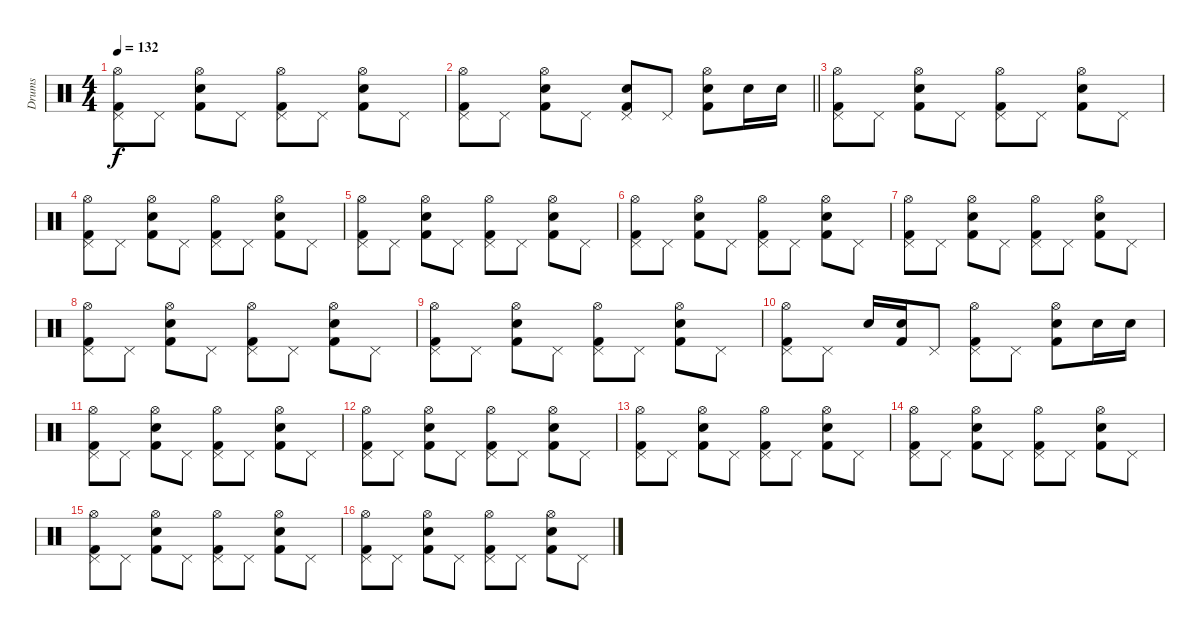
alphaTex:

\track ("Drums" "Drums") {instrument percussion}
\staff {score}
\articulation defaults
\ts (4 4)
\tempo 132
\clef neutral
\ks c
("Hi-Hat (open)" "Pedal Hi-Hat (hit)" "Kick (hit) 2").8{dy f} "Pedal Hi-Hat (hit)".8 ("Electric Snare (hit)" "Hi-Hat (open)" "Kick (hit) 2").8 "Pedal Hi-Hat (hit)".8 ("Hi-Hat (open)" "Pedal Hi-Hat (hit)" "Kick (hit) 2").8 "Pedal Hi-Hat (hit)".8 ("Electric Snare (hit)" "Hi-Hat (open)" "Kick (hit) 2").8 "Pedal Hi-Hat (hit)".8 |
\barLineRight lightlight
("Hi-Hat (open)" "Pedal Hi-Hat (hit)" "Kick (hit) 2").8 "Pedal Hi-Hat (hit)".8 ("Electric Snare (hit)" "Hi-Hat (open)" "Kick (hit) 2").8 "Pedal Hi-Hat (hit)".8 ("Electric Snare (hit)" "Pedal Hi-Hat (hit)" "Kick (hit) 2").8 "Pedal Hi-Hat (hit)".8 ("Electric Snare (hit)" "Hi-Hat (open)" "Kick (hit) 2").8 "Electric Snare (hit)".16 "Electric Snare (hit)".16 |
\section ("" "")
("Hi-Hat (open)" "Pedal Hi-Hat (hit)" "Kick (hit) 2").8 "Pedal Hi-Hat (hit)".8 ("Electric Snare (hit)" "Hi-Hat (open)" "Kick (hit) 2").8 "Pedal Hi-Hat (hit)".8 ("Hi-Hat (open)" "Pedal Hi-Hat (hit)" "Kick (hit) 2").8 "Pedal Hi-Hat (hit)".8 ("Electric Snare (hit)" "Hi-Hat (open)" "Kick (hit) 2").8 "Pedal Hi-Hat (hit)".8 |
("Hi-Hat (open)" "Pedal Hi-Hat (hit)" "Kick (hit) 2").8 "Pedal Hi-Hat (hit)".8 ("Electric Snare (hit)" "Hi-Hat (open)" "Kick (hit) 2").8 "Pedal Hi-Hat (hit)".8 ("Hi-Hat (open)" "Pedal Hi-Hat (hit)" "Kick (hit) 2").8 "Pedal Hi-Hat (hit)".8 ("Electric Snare (hit)" "Hi-Hat (open)" "Kick (hit) 2").8 "Pedal Hi-Hat (hit)".8 |
("Hi-Hat (open)" "Pedal Hi-Hat (hit)" "Kick (hit) 2").8 "Pedal Hi-Hat (hit)".8 ("Electric Snare (hit)" "Hi-Hat (open)" "Kick (hit) 2").8 "Pedal Hi-Hat (hit)".8 ("Hi-Hat (open)" "Pedal Hi-Hat (hit)" "Kick (hit) 2").8 "Pedal Hi-Hat (hit)".8 ("Electric Snare (hit)" "Hi-Hat (open)" "Kick (hit) 2").8 "Pedal Hi-Hat (hit)".8 |
("Hi-Hat (open)" "Pedal Hi-Hat (hit)" "Kick (hit) 2").8 "Pedal Hi-Hat (hit)".8 ("Electric Snare (hit)" "Hi-Hat (open)" "Kick (hit) 2").8 "Pedal Hi-Hat (hit)".8 ("Hi-Hat (open)" "Pedal Hi-Hat (hit)" "Kick (hit) 2").8 "Pedal Hi-Hat (hit)".8 ("Electric Snare (hit)" "Hi-Hat (open)" "Kick (hit) 2").8 "Pedal Hi-Hat (hit)".8 |
("Hi-Hat (open)" "Pedal Hi-Hat (hit)" "Kick (hit) 2").8 "Pedal Hi-Hat (hit)".8 ("Electric Snare (hit)" "Hi-Hat (open)" "Kick (hit) 2").8 "Pedal Hi-Hat (hit)".8 ("Hi-Hat (open)" "Pedal Hi-Hat (hit)" "Kick (hit) 2").8 "Pedal Hi-Hat (hit)".8 ("Electric Snare (hit)" "Hi-Hat (open)" "Kick (hit) 2").8 "Pedal Hi-Hat (hit)".8 |
("Hi-Hat (open)" "Pedal Hi-Hat (hit)" "Kick (hit) 2").8 "Pedal Hi-Hat (hit)".8 ("Electric Snare (hit)" "Hi-Hat (open)" "Kick (hit) 2").8 "Pedal Hi-Hat (hit)".8 ("Hi-Hat (open)" "Pedal Hi-Hat (hit)" "Kick (hit) 2").8 "Pedal Hi-Hat (hit)".8 ("Electric Snare (hit)" "Hi-Hat (open)" "Kick (hit) 2").8 "Pedal Hi-Hat (hit)".8 |
("Hi-Hat (open)" "Pedal Hi-Hat (hit)" "Kick (hit) 2").8 "Pedal Hi-Hat (hit)".8 ("Electric Snare (hit)" "Hi-Hat (open)" "Kick (hit) 2").8 "Pedal Hi-Hat (hit)".8 ("Hi-Hat (open)" "Pedal Hi-Hat (hit)" "Kick (hit) 2").8 "Pedal Hi-Hat (hit)".8 ("Electric Snare (hit)" "Hi-Hat (open)" "Kick (hit) 2").8 "Pedal Hi-Hat (hit)".8 |
("Hi-Hat (open)" "Pedal Hi-Hat (hit)" "Kick (hit) 2").8 "Pedal Hi-Hat (hit)".8 "Electric Snare (hit)".16 ("Electric Snare (hit)" "Kick (hit) 2").16 "Pedal Hi-Hat (hit)".8 ("Hi-Hat (open)" "Pedal Hi-Hat (hit)" "Kick (hit) 2").8 "Pedal Hi-Hat (hit)".8 ("Electric Snare (hit)" "Hi-Hat (open)" "Kick (hit) 2").8 "Electric Snare (hit)".16 "Electric Snare (hit)".16 |
("Hi-Hat (open)" "Pedal Hi-Hat (hit)" "Kick (hit) 2").8 "Pedal Hi-Hat (hit)".8 ("Electric Snare (hit)" "Hi-Hat (open)" "Kick (hit) 2").8 "Pedal Hi-Hat (hit)".8 ("Hi-Hat (open)" "Pedal Hi-Hat (hit)" "Kick (hit) 2").8 "Pedal Hi-Hat (hit)".8 ("Electric Snare (hit)" "Hi-Hat (open)" "Kick (hit) 2").8 "Pedal Hi-Hat (hit)".8 |
("Hi-Hat (open)" "Pedal Hi-Hat (hit)" "Kick (hit) 2").8 "Pedal Hi-Hat (hit)".8 ("Electric Snare (hit)" "Hi-Hat (open)" "Kick (hit) 2").8 "Pedal Hi-Hat (hit)".8 ("Hi-Hat (open)" "Pedal Hi-Hat (hit)" "Kick (hit) 2").8 "Pedal Hi-Hat (hit)".8 ("Electric Snare (hit)" "Hi-Hat (open)" "Kick (hit) 2").8 "Pedal Hi-Hat (hit)".8 |
("Hi-Hat (open)" "Pedal Hi-Hat (hit)" "Kick (hit) 2").8 "Pedal Hi-Hat (hit)".8 ("Electric Snare (hit)" "Hi-Hat (open)" "Kick (hit) 2").8 "Pedal Hi-Hat (hit)".8 ("Hi-Hat (open)" "Pedal Hi-Hat (hit)" "Kick (hit) 2").8 "Pedal Hi-Hat (hit)".8 ("Electric Snare (hit)" "Hi-Hat (open)" "Kick (hit) 2").8 "Pedal Hi-Hat (hit)".8 |
("Hi-Hat (open)" "Pedal Hi-Hat (hit)" "Kick (hit) 2").8 "Pedal Hi-Hat (hit)".8 ("Electric Snare (hit)" "Hi-Hat (open)" "Kick (hit) 2").8 "Pedal Hi-Hat (hit)".8 ("Hi-Hat (open)" "Pedal Hi-Hat (hit)" "Kick (hit) 2").8 "Pedal Hi-Hat (hit)".8 ("Electric Snare (hit)" "Hi-Hat (open)" "Kick (hit) 2").8 "Pedal Hi-Hat (hit)".8 |
("Hi-Hat (open)" "Pedal Hi-Hat (hit)" "Kick (hit) 2").8 "Pedal Hi-Hat (hit)".8 ("Electric Snare (hit)" "Hi-Hat (open)" "Kick (hit) 2").8 "Pedal Hi-Hat (hit)".8 ("Hi-Hat (open)" "Pedal Hi-Hat (hit)" "Kick (hit) 2").8 "Pedal Hi-Hat (hit)".8 ("Electric Snare (hit)" "Hi-Hat (open)" "Kick (hit) 2").8 "Pedal Hi-Hat (hit)".8 |
("Hi-Hat (open)" "Pedal Hi-Hat (hit)" "Kick (hit) 2").8 "Pedal Hi-Hat (hit)".8 ("Electric Snare (hit)" "Hi-Hat (open)" "Kick (hit) 2").8 "Pedal Hi-Hat (hit)".8 ("Hi-Hat (open)" "Pedal Hi-Hat (hit)" "Kick (hit) 2").8 "Pedal Hi-Hat (hit)".8 ("Electric Snare (hit)" "Hi-Hat (open)" "Kick (hit) 2").8 "Pedal Hi-Hat (hit)".8
